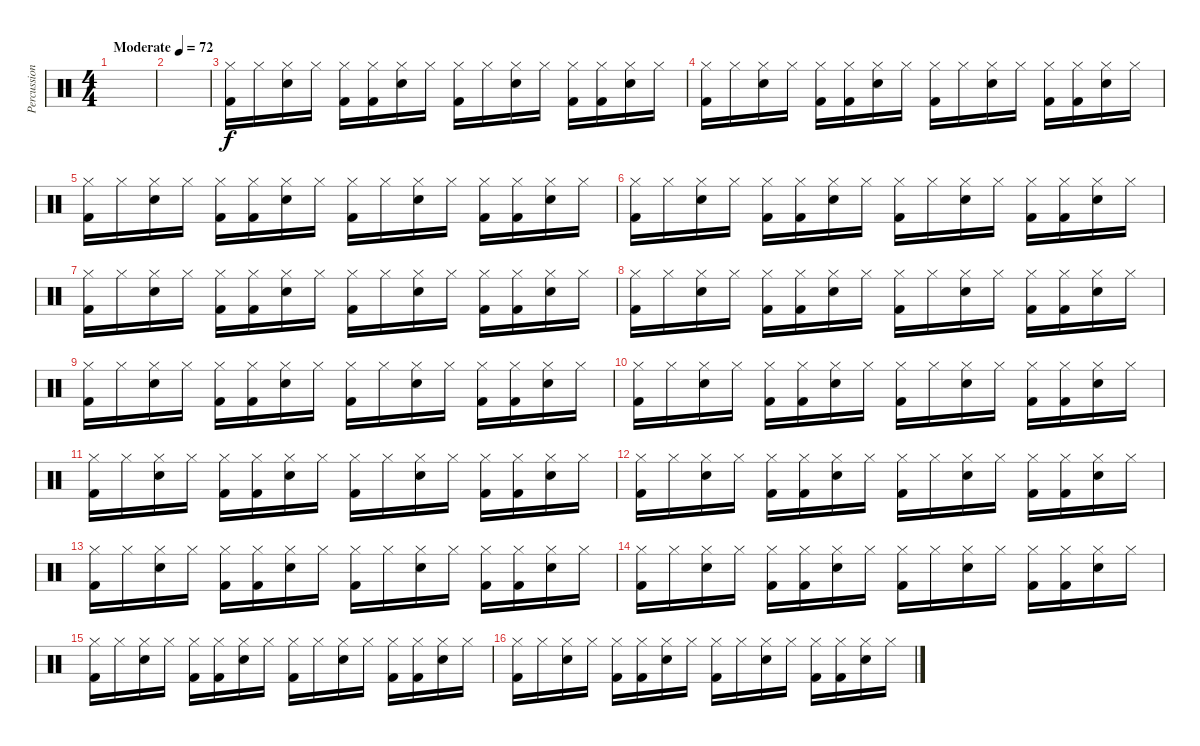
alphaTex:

\track ("Percussion" "Percussion") {instrument percussion}
\staff {score}
\articulation defaults
\ts (4 4)
\tempo (72 "Moderate")
\clef neutral
\ks c
|
|
("Hi-Hat (closed)" "Kick (hit) 2").16 "Hi-Hat (closed)".16 ("Hi-Hat (closed)" "Snare (hit) 2").16 "Hi-Hat (closed)".16 ("Hi-Hat (closed)" "Kick (hit) 2").16 ("Hi-Hat (closed)" "Kick (hit) 2").16 ("Hi-Hat (closed)" "Snare (hit) 2").16 "Hi-Hat (closed)".16 ("Hi-Hat (closed)" "Kick (hit) 2").16 "Hi-Hat (closed)".16 ("Hi-Hat (closed)" "Snare (hit) 2").16 "Hi-Hat (closed)".16 ("Hi-Hat (closed)" "Kick (hit) 2").16 ("Hi-Hat (closed)" "Kick (hit) 2").16 ("Hi-Hat (closed)" "Snare (hit) 2").16 "Hi-Hat (closed)".16 |
("Hi-Hat (closed)" "Kick (hit) 2").16 "Hi-Hat (closed)".16 ("Hi-Hat (closed)" "Snare (hit) 2").16 "Hi-Hat (closed)".16 ("Hi-Hat (closed)" "Kick (hit) 2").16 ("Hi-Hat (closed)" "Kick (hit) 2").16 ("Hi-Hat (closed)" "Snare (hit) 2").16 "Hi-Hat (closed)".16 ("Hi-Hat (closed)" "Kick (hit) 2").16 "Hi-Hat (closed)".16 ("Hi-Hat (closed)" "Snare (hit) 2").16 "Hi-Hat (closed)".16 ("Hi-Hat (closed)" "Kick (hit) 2").16 ("Hi-Hat (closed)" "Kick (hit) 2").16 ("Hi-Hat (closed)" "Snare (hit) 2").16 "Hi-Hat (closed)".16 |
("Hi-Hat (closed)" "Kick (hit) 2").16 "Hi-Hat (closed)".16 ("Hi-Hat (closed)" "Snare (hit) 2").16 "Hi-Hat (closed)".16 ("Hi-Hat (closed)" "Kick (hit) 2").16 ("Hi-Hat (closed)" "Kick (hit) 2").16 ("Hi-Hat (closed)" "Snare (hit) 2").16 "Hi-Hat (closed)".16 ("Hi-Hat (closed)" "Kick (hit) 2").16 "Hi-Hat (closed)".16 ("Hi-Hat (closed)" "Snare (hit) 2").16 "Hi-Hat (closed)".16 ("Hi-Hat (closed)" "Kick (hit) 2").16 ("Hi-Hat (closed)" "Kick (hit) 2").16 ("Hi-Hat (closed)" "Snare (hit) 2").16 "Hi-Hat (closed)".16 |
("Hi-Hat (closed)" "Kick (hit) 2").16 "Hi-Hat (closed)".16 ("Hi-Hat (closed)" "Snare (hit) 2").16 "Hi-Hat (closed)".16 ("Hi-Hat (closed)" "Kick (hit) 2").16 ("Hi-Hat (closed)" "Kick (hit) 2").16 ("Hi-Hat (closed)" "Snare (hit) 2").16 "Hi-Hat (closed)".16 ("Hi-Hat (closed)" "Kick (hit) 2").16 "Hi-Hat (closed)".16 ("Hi-Hat (closed)" "Snare (hit) 2").16 "Hi-Hat (closed)".16 ("Hi-Hat (closed)" "Kick (hit) 2").16 ("Hi-Hat (closed)" "Kick (hit) 2").16 ("Hi-Hat (closed)" "Snare (hit) 2").16 "Hi-Hat (closed)".16 |
("Hi-Hat (closed)" "Kick (hit) 2").16 "Hi-Hat (closed)".16 ("Hi-Hat (closed)" "Snare (hit) 2").16 "Hi-Hat (closed)".16 ("Hi-Hat (closed)" "Kick (hit) 2").16 ("Hi-Hat (closed)" "Kick (hit) 2").16 ("Hi-Hat (closed)" "Snare (hit) 2").16 "Hi-Hat (closed)".16 ("Hi-Hat (closed)" "Kick (hit) 2").16 "Hi-Hat (closed)".16 ("Hi-Hat (closed)" "Snare (hit) 2").16 "Hi-Hat (closed)".16 ("Hi-Hat (closed)" "Kick (hit) 2").16 ("Hi-Hat (closed)" "Kick (hit) 2").16 ("Hi-Hat (closed)" "Snare (hit) 2").16 "Hi-Hat (closed)".16 |
("Hi-Hat (closed)" "Kick (hit) 2").16 "Hi-Hat (closed)".16 ("Hi-Hat (closed)" "Snare (hit) 2").16 "Hi-Hat (closed)".16 ("Hi-Hat (closed)" "Kick (hit) 2").16 ("Hi-Hat (closed)" "Kick (hit) 2").16 ("Hi-Hat (closed)" "Snare (hit) 2").16 "Hi-Hat (closed)".16 ("Hi-Hat (closed)" "Kick (hit) 2").16 "Hi-Hat (closed)".16 ("Hi-Hat (closed)" "Snare (hit) 2").16 "Hi-Hat (closed)".16 ("Hi-Hat (closed)" "Kick (hit) 2").16 ("Hi-Hat (closed)" "Kick (hit) 2").16 ("Hi-Hat (closed)" "Snare (hit) 2").16 "Hi-Hat (closed)".16 |
("Hi-Hat (closed)" "Kick (hit) 2").16 "Hi-Hat (closed)".16 ("Hi-Hat (closed)" "Snare (hit) 2").16 "Hi-Hat (closed)".16 ("Hi-Hat (closed)" "Kick (hit) 2").16 ("Hi-Hat (closed)" "Kick (hit) 2").16 ("Hi-Hat (closed)" "Snare (hit) 2").16 "Hi-Hat (closed)".16 ("Hi-Hat (closed)" "Kick (hit) 2").16 "Hi-Hat (closed)".16 ("Hi-Hat (closed)" "Snare (hit) 2").16 "Hi-Hat (closed)".16 ("Hi-Hat (closed)" "Kick (hit) 2").16 ("Hi-Hat (closed)" "Kick (hit) 2").16 ("Hi-Hat (closed)" "Snare (hit) 2").16 "Hi-Hat (closed)".16 |
("Hi-Hat (closed)" "Kick (hit) 2").16 "Hi-Hat (closed)".16 ("Hi-Hat (closed)" "Snare (hit) 2").16 "Hi-Hat (closed)".16 ("Hi-Hat (closed)" "Kick (hit) 2").16 ("Hi-Hat (closed)" "Kick (hit) 2").16 ("Hi-Hat (closed)" "Snare (hit) 2").16 "Hi-Hat (closed)".16 ("Hi-Hat (closed)" "Kick (hit) 2").16 "Hi-Hat (closed)".16 ("Hi-Hat (closed)" "Snare (hit) 2").16 "Hi-Hat (closed)".16 ("Hi-Hat (closed)" "Kick (hit) 2").16 ("Hi-Hat (closed)" "Kick (hit) 2").16 ("Hi-Hat (closed)" "Snare (hit) 2").16 "Hi-Hat (closed)".16 |
("Hi-Hat (closed)" "Kick (hit) 2").16 "Hi-Hat (closed)".16 ("Hi-Hat (closed)" "Snare (hit) 2").16 "Hi-Hat (closed)".16 ("Hi-Hat (closed)" "Kick (hit) 2").16 ("Hi-Hat (closed)" "Kick (hit) 2").16 ("Hi-Hat (closed)" "Snare (hit) 2").16 "Hi-Hat (closed)".16 ("Hi-Hat (closed)" "Kick (hit) 2").16 "Hi-Hat (closed)".16 ("Hi-Hat (closed)" "Snare (hit) 2").16 "Hi-Hat (closed)".16 ("Hi-Hat (closed)" "Kick (hit) 2").16 ("Hi-Hat (closed)" "Kick (hit) 2").16 ("Hi-Hat (closed)" "Snare (hit) 2").16 "Hi-Hat (closed)".16 |
("Hi-Hat (closed)" "Kick (hit) 2").16 "Hi-Hat (closed)".16 ("Hi-Hat (closed)" "Snare (hit) 2").16 "Hi-Hat (closed)".16 ("Hi-Hat (closed)" "Kick (hit) 2").16 ("Hi-Hat (closed)" "Kick (hit) 2").16 ("Hi-Hat (closed)" "Snare (hit) 2").16 "Hi-Hat (closed)".16 ("Hi-Hat (closed)" "Kick (hit) 2").16 "Hi-Hat (closed)".16 ("Hi-Hat (closed)" "Snare (hit) 2").16 "Hi-Hat (closed)".16 ("Hi-Hat (closed)" "Kick (hit) 2").16 ("Hi-Hat (closed)" "Kick (hit) 2").16 ("Hi-Hat (closed)" "Snare (hit) 2").16 "Hi-Hat (closed)".16 |
("Hi-Hat (closed)" "Kick (hit) 2").16 "Hi-Hat (closed)".16 ("Hi-Hat (closed)" "Snare (hit) 2").16 "Hi-Hat (closed)".16 ("Hi-Hat (closed)" "Kick (hit) 2").16 ("Hi-Hat (closed)" "Kick (hit) 2").16 ("Hi-Hat (closed)" "Snare (hit) 2").16 "Hi-Hat (closed)".16 ("Hi-Hat (closed)" "Kick (hit) 2").16 "Hi-Hat (closed)".16 ("Hi-Hat (closed)" "Snare (hit) 2").16 "Hi-Hat (closed)".16 ("Hi-Hat (closed)" "Kick (hit) 2").16 ("Hi-Hat (closed)" "Kick (hit) 2").16 ("Hi-Hat (closed)" "Snare (hit) 2").16 "Hi-Hat (closed)".16 |
("Hi-Hat (closed)" "Kick (hit) 2").16 "Hi-Hat (closed)".16 ("Hi-Hat (closed)" "Snare (hit) 2").16 "Hi-Hat (closed)".16 ("Hi-Hat (closed)" "Kick (hit) 2").16 ("Hi-Hat (closed)" "Kick (hit) 2").16 ("Hi-Hat (closed)" "Snare (hit) 2").16 "Hi-Hat (closed)".16 ("Hi-Hat (closed)" "Kick (hit) 2").16 "Hi-Hat (closed)".16 ("Hi-Hat (closed)" "Snare (hit) 2").16 "Hi-Hat (closed)".16 ("Hi-Hat (closed)" "Kick (hit) 2").16 ("Hi-Hat (closed)" "Kick (hit) 2").16 ("Hi-Hat (closed)" "Snare (hit) 2").16 "Hi-Hat (closed)".16 |
("Hi-Hat (closed)" "Kick (hit) 2").16 "Hi-Hat (closed)".16 ("Hi-Hat (closed)" "Snare (hit) 2").16 "Hi-Hat (closed)".16 ("Hi-Hat (closed)" "Kick (hit) 2").16 ("Hi-Hat (closed)" "Kick (hit) 2").16 ("Hi-Hat (closed)" "Snare (hit) 2").16 "Hi-Hat (closed)".16 ("Hi-Hat (closed)" "Kick (hit) 2").16 "Hi-Hat (closed)".16 ("Hi-Hat (closed)" "Snare (hit) 2").16 "Hi-Hat (closed)".16 ("Hi-Hat (closed)" "Kick (hit) 2").16 ("Hi-Hat (closed)" "Kick (hit) 2").16 ("Hi-Hat (closed)" "Snare (hit) 2").16 "Hi-Hat (closed)".16 |
("Hi-Hat (closed)" "Kick (hit) 2").16 "Hi-Hat (closed)".16 ("Hi-Hat (closed)" "Snare (hit) 2").16 "Hi-Hat (closed)".16 ("Hi-Hat (closed)" "Kick (hit) 2").16 ("Hi-Hat (closed)" "Kick (hit) 2").16 ("Hi-Hat (closed)" "Snare (hit) 2").16 "Hi-Hat (closed)".16 ("Hi-Hat (closed)" "Kick (hit) 2").16 "Hi-Hat (closed)".16 ("Hi-Hat (closed)" "Snare (hit) 2").16 "Hi-Hat (closed)".16 ("Hi-Hat (closed)" "Kick (hit) 2").16 ("Hi-Hat (closed)" "Kick (hit) 2").16 ("Hi-Hat (closed)" "Snare (hit) 2").16 "Hi-Hat (closed)".16
